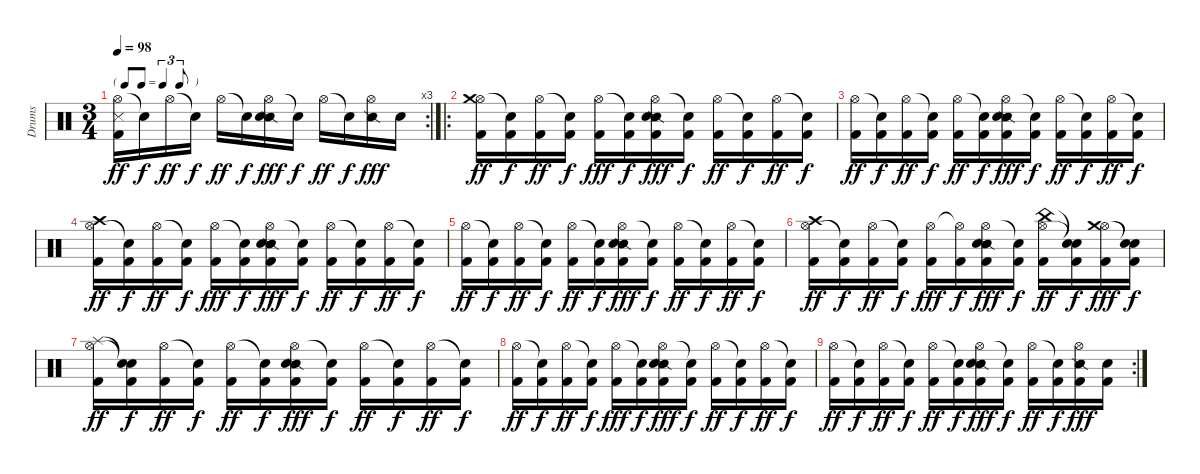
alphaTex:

\track ("Drums" "Drums") {instrument percussion}
\staff {score}
\articulation defaults
\rc 3
\ts (3 4)
\tf triplet8th
\tempo 98
\clef neutral
\ks c
("Hi-Hat (open)" "Metronome (hit)" "Kick (hit) 2").16{dy ff} "Snare (hit)"{t}.16{dy f} "Hi-Hat (open)".16{dy ff} "Snare (hit)"{t}.16{dy f} "Hi-Hat (open)".16{dy ff} "Snare (hit)"{t}.16{dy f} ("Hi-Hat (open)" "Snare (side stick) 2" "Electric Snare (hit)").16{dy fff} "Snare (hit)"{t}.16{dy f} "Hi-Hat (open)".16{dy ff} "Snare (hit)"{t}.16{dy f} ("Hi-Hat (open)" "Snare (side stick) 2").16{dy fff} "Electric Snare (hit)".16 |
\ro
("Hi-Hat (open)" "Crash medium (hit)" "Kick (hit) 2").16{dy ff balance 8} ("Snare (hit)"{t} "Kick (hit) 2").16{dy f} ("Hi-Hat (open)" "Kick (hit) 2").16{dy ff} ("Snare (hit)"{t} "Kick (hit) 2").16{dy f} ("Hi-Hat (open)" "Kick (hit) 2").16{dy fff} ("Snare (hit)"{t} "Kick (hit) 2").16{dy f} ("Hi-Hat (open)" "Snare (side stick) 2" "Electric Snare (hit)" "Kick (hit) 2").16{dy fff} ("Snare (hit)"{t} "Kick (hit) 2").16{dy f} ("Hi-Hat (open)" "Kick (hit) 2").16{dy ff} ("Snare (hit)"{t} "Kick (hit) 2").16{dy f} ("Hi-Hat (open)" "Kick (hit) 2").16{dy ff} ("Snare (hit)"{t} "Kick (hit) 2").16{dy f} |
("Hi-Hat (open)" "Kick (hit) 2").16{dy ff} ("Snare (hit)"{t} "Kick (hit) 2").16{dy f} ("Hi-Hat (open)" "Kick (hit) 2").16{dy ff} ("Snare (hit)"{t} "Kick (hit) 2").16{dy f} ("Hi-Hat (open)" "Kick (hit) 2").16{dy ff} ("Snare (hit)"{t} "Kick (hit) 2").16{dy f} ("Hi-Hat (open)" "Snare (side stick) 2" "Electric Snare (hit)" "Kick (hit) 2").16{dy fff} ("Snare (hit)"{t} "Kick (hit) 2").16{dy f} ("Hi-Hat (open)" "Kick (hit) 2").16{dy ff} ("Snare (hit)"{t} "Kick (hit) 2").16{dy f} ("Hi-Hat (open)" "Kick (hit) 2").16{dy ff} ("Snare (hit)"{t} "Kick (hit) 2").16{dy f} |
("Hi-Hat (open)" "Crash high (hit)" "Kick (hit) 2").16{dy ff} ("Snare (hit)"{t} "Kick (hit) 2").16{dy f} ("Hi-Hat (open)" "Kick (hit) 2").16{dy ff} ("Snare (hit)"{t} "Kick (hit) 2").16{dy f} ("Hi-Hat (open)" "Kick (hit) 2").16{dy fff} ("Snare (hit)"{t} "Kick (hit) 2").16{dy f} ("Hi-Hat (open)" "Snare (side stick) 2" "Electric Snare (hit)" "Kick (hit) 2").16{dy fff} ("Snare (hit)"{t} "Kick (hit) 2").16{dy f} ("Hi-Hat (open)" "Kick (hit) 2").16{dy ff} ("Snare (hit)"{t} "Kick (hit) 2").16{dy f} ("Hi-Hat (open)" "Kick (hit) 2").16{dy ff} ("Snare (hit)"{t} "Kick (hit) 2").16{dy f} |
("Hi-Hat (open)" "Kick (hit) 2").16{dy ff} ("Snare (hit)"{t} "Kick (hit) 2").16{dy f} ("Hi-Hat (open)" "Kick (hit) 2").16{dy ff} ("Snare (hit)"{t} "Kick (hit) 2").16{dy f} ("Hi-Hat (open)" "Kick (hit) 2").16{dy ff} ("Snare (hit)"{t} "Kick (hit) 2").16{dy f} ("Hi-Hat (open)" "Snare (side stick) 2" "Electric Snare (hit)" "Kick (hit) 2").16{dy fff} ("Snare (hit)"{t} "Kick (hit) 2").16{dy f} ("Hi-Hat (open)" "Kick (hit) 2").16{dy ff} ("Snare (hit)"{t} "Kick (hit) 2").16{dy f} ("Hi-Hat (open)" "Kick (hit) 2").16{dy ff} ("Snare (hit)"{t} "Kick (hit) 2").16{dy f} |
("Hi-Hat (open)" "Crash high (hit)" "Kick (hit) 2").16{dy ff} ("Snare (hit)"{t} "Kick (hit) 2").16{dy f} ("Hi-Hat (open)" "Kick (hit) 2").16{dy ff} ("Snare (hit)"{t} "Kick (hit) 2").16{dy f} ("Hi-Hat (open)" "Kick (hit) 2").16{dy fff} ("Hi-Hat (open)"{t} "Kick (hit) 2").16{dy f} ("Hi-Hat (open)" "Snare (side stick) 2" "Electric Snare (hit)" "Kick (hit) 2").16{dy fff} ("Snare (hit)"{t} "Kick (hit) 2").16{dy f} ("Hi-Hat (open)" "China (hit)" "Kick (hit) 2").16{dy ff} ("Snare (hit)"{t} "Snare (hit)"{t} "Kick (hit) 2").16{dy f} ("Hi-Hat (open)" "Crash medium (hit)" "Kick (hit) 2").16{dy fff} ("Snare (hit)"{t} "Snare (hit)"{t} "Kick (hit) 2").16{dy f} |
("Hi-Hat (open)" "Splash (hit)" "Kick (hit) 2").16{dy ff} ("Snare (hit)"{t} "Snare (hit)"{t} "Kick (hit) 2").16{dy f} ("Hi-Hat (open)" "Kick (hit) 2").16{dy ff} ("Snare (hit)"{t} "Kick (hit) 2").16{dy f} ("Hi-Hat (open)" "Kick (hit) 2").16{dy ff} ("Snare (hit)"{t} "Kick (hit) 2").16{dy f} ("Hi-Hat (open)" "Snare (side stick) 2" "Electric Snare (hit)" "Kick (hit) 2").16{dy fff} ("Snare (hit)"{t} "Kick (hit) 2").16{dy f} ("Hi-Hat (open)" "Kick (hit) 2").16{dy ff} ("Snare (hit)"{t} "Kick (hit) 2").16{dy f} ("Hi-Hat (open)" "Kick (hit) 2").16{dy ff} ("Snare (hit)"{t} "Kick (hit) 2").16{dy f} |
("Hi-Hat (open)" "Kick (hit) 2").16{dy ff} ("Snare (hit)"{t} "Kick (hit) 2").16{dy f} ("Hi-Hat (open)" "Kick (hit) 2").16{dy ff} ("Snare (hit)"{t} "Kick (hit) 2").16{dy f} ("Hi-Hat (open)" "Kick (hit) 2").16{dy fff} ("Snare (hit)"{t} "Kick (hit) 2").16{dy f} ("Hi-Hat (open)" "Snare (side stick) 2" "Electric Snare (hit)" "Kick (hit) 2").16{dy fff} ("Snare (hit)"{t} "Kick (hit) 2").16{dy f} ("Hi-Hat (open)" "Kick (hit) 2").16{dy ff} ("Snare (hit)"{t} "Kick (hit) 2").16{dy f} ("Hi-Hat (open)" "Kick (hit) 2").16{dy ff} ("Snare (hit)"{t} "Kick (hit) 2").16{dy f} |
\rc 2
("Hi-Hat (open)" "Kick (hit) 2").16{dy ff} ("Snare (hit)"{t} "Kick (hit) 2").16{dy f} ("Hi-Hat (open)" "Kick (hit) 2").16{dy ff} ("Snare (hit)"{t} "Kick (hit) 2").16{dy f} ("Hi-Hat (open)" "Kick (hit) 2").16{dy ff} ("Snare (hit)"{t} "Kick (hit) 2").16{dy f} ("Hi-Hat (open)" "Snare (side stick) 2" "Electric Snare (hit)" "Kick (hit) 2").16{dy fff} ("Snare (hit)"{t} "Kick (hit) 2").16{dy f} ("Hi-Hat (open)" "Kick (hit) 2").16{dy ff} ("Snare (hit)"{t} "Kick (hit) 2").16{dy f} ("Hi-Hat (open)" "Snare (side stick) 2" "Kick (hit) 2").16{dy fff} ("Electric Snare (hit)" "Kick (hit) 2").16
